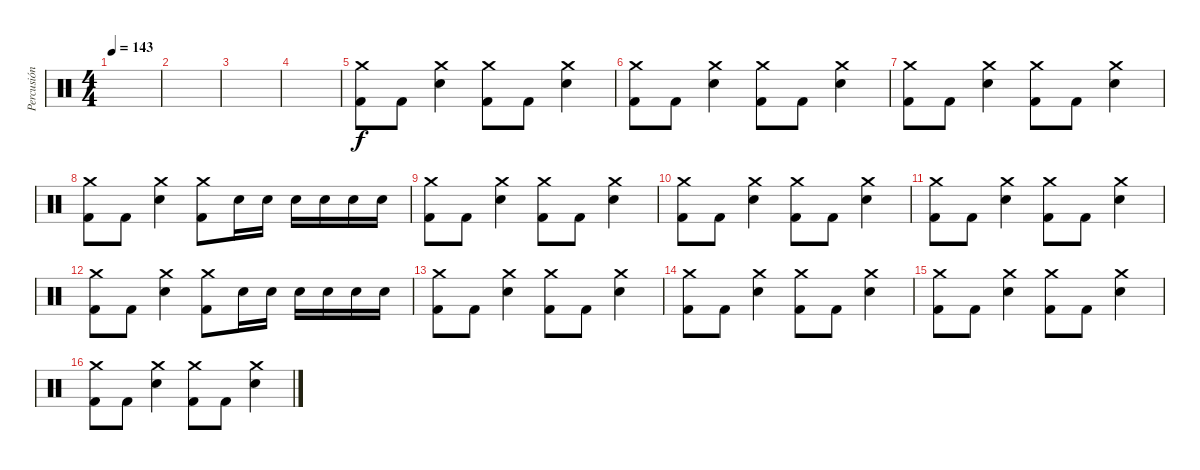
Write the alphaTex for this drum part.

\track ("Percusión" "Percusión") {instrument percussion}
\staff {score}
\articulation defaults
\ts (4 4)
\tempo 143
\clef neutral
\ks c
|
|
|
|
("Crash medium (hit)" "Kick (hit) 2").8 "Kick (hit) 2".8 ("Crash medium (hit)" "Snare (hit) 2").4 ("Crash medium (hit)" "Kick (hit) 2").8 "Kick (hit) 2".8 ("Crash medium (hit)" "Snare (hit) 2").4 |
("Crash medium (hit)" "Kick (hit) 2").8 "Kick (hit) 2".8 ("Crash medium (hit)" "Snare (hit) 2").4 ("Crash medium (hit)" "Kick (hit) 2").8 "Kick (hit) 2".8 ("Crash medium (hit)" "Snare (hit) 2").4 |
("Crash medium (hit)" "Kick (hit) 2").8 "Kick (hit) 2".8 ("Crash medium (hit)" "Snare (hit) 2").4 ("Crash medium (hit)" "Kick (hit) 2").8 "Kick (hit) 2".8 ("Crash medium (hit)" "Snare (hit) 2").4 |
("Crash medium (hit)" "Kick (hit) 2").8 "Kick (hit) 2".8 ("Crash medium (hit)" "Snare (hit) 2").4 ("Crash medium (hit)" "Kick (hit) 2").8 "Snare (hit) 2".16 "Snare (hit) 2".16 "Snare (hit) 2".16 "Snare (hit) 2".16 "Snare (hit) 2".16 "Snare (hit) 2".16 |
("Crash medium (hit)" "Kick (hit) 2").8 "Kick (hit) 2".8 ("Crash medium (hit)" "Snare (hit) 2").4 ("Crash medium (hit)" "Kick (hit) 2").8 "Kick (hit) 2".8 ("Crash medium (hit)" "Snare (hit) 2").4 |
("Crash medium (hit)" "Kick (hit) 2").8 "Kick (hit) 2".8 ("Crash medium (hit)" "Snare (hit) 2").4 ("Crash medium (hit)" "Kick (hit) 2").8 "Kick (hit) 2".8 ("Crash medium (hit)" "Snare (hit) 2").4 |
("Crash medium (hit)" "Kick (hit) 2").8 "Kick (hit) 2".8 ("Crash medium (hit)" "Snare (hit) 2").4 ("Crash medium (hit)" "Kick (hit) 2").8 "Kick (hit) 2".8 ("Crash medium (hit)" "Snare (hit) 2").4 |
("Crash medium (hit)" "Kick (hit) 2").8 "Kick (hit) 2".8 ("Crash medium (hit)" "Snare (hit) 2").4 ("Crash medium (hit)" "Kick (hit) 2").8 "Snare (hit) 2".16 "Snare (hit) 2".16 "Snare (hit) 2".16 "Snare (hit) 2".16 "Snare (hit) 2".16 "Snare (hit) 2".16 |
("Crash medium (hit)" "Kick (hit) 2").8 "Kick (hit) 2".8 ("Crash medium (hit)" "Snare (hit) 2").4 ("Crash medium (hit)" "Kick (hit) 2").8 "Kick (hit) 2".8 ("Crash medium (hit)" "Snare (hit) 2").4 |
("Crash medium (hit)" "Kick (hit) 2").8 "Kick (hit) 2".8 ("Crash medium (hit)" "Snare (hit) 2").4 ("Crash medium (hit)" "Kick (hit) 2").8 "Kick (hit) 2".8 ("Crash medium (hit)" "Snare (hit) 2").4 |
("Crash medium (hit)" "Kick (hit) 2").8 "Kick (hit) 2".8 ("Crash medium (hit)" "Snare (hit) 2").4 ("Crash medium (hit)" "Kick (hit) 2").8 "Kick (hit) 2".8 ("Crash medium (hit)" "Snare (hit) 2").4 |
("Crash medium (hit)" "Kick (hit) 2").8 "Kick (hit) 2".8 ("Crash medium (hit)" "Snare (hit) 2").4 ("Crash medium (hit)" "Kick (hit) 2").8 "Kick (hit) 2".8 ("Crash medium (hit)" "Snare (hit) 2").4
